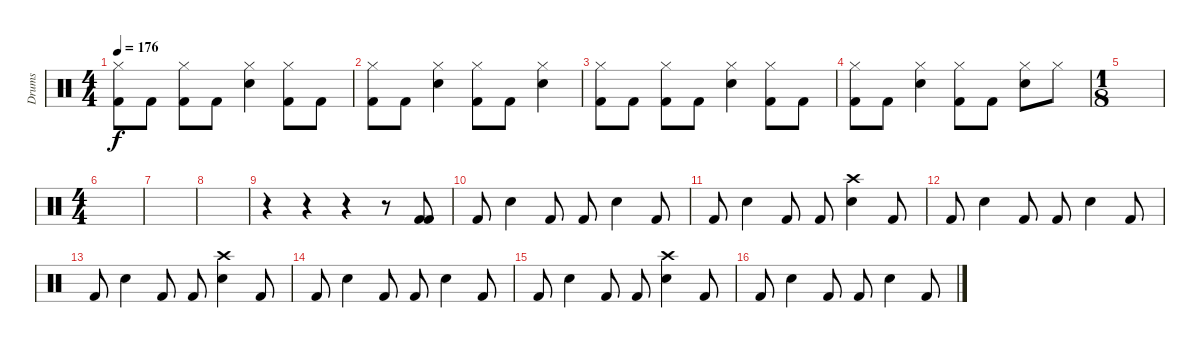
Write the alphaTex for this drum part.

\track ("Drums" "Drums") {instrument percussion}
\staff {score}
\articulation defaults
\ts (4 4)
\tempo 176
\clef neutral
\ks c
("Hi-Hat (closed)" "Kick (hit) 2").8{dy f} "Kick (hit) 2".8 ("Hi-Hat (closed)" "Kick (hit) 2").8 "Kick (hit) 2".8 ("Hi-Hat (closed)" "Snare (hit) 2").4 ("Hi-Hat (closed)" "Kick (hit) 2").8 "Kick (hit) 2".8 |
("Hi-Hat (closed)" "Kick (hit) 2").8 "Kick (hit) 2".8 ("Hi-Hat (closed)" "Snare (hit) 2").4 ("Hi-Hat (closed)" "Kick (hit) 2").8 "Kick (hit) 2".8 ("Hi-Hat (closed)" "Snare (hit) 2").4 |
("Hi-Hat (closed)" "Kick (hit) 2").8 "Kick (hit) 2".8 ("Hi-Hat (closed)" "Kick (hit) 2").8 "Kick (hit) 2".8 ("Hi-Hat (closed)" "Snare (hit) 2").4 ("Hi-Hat (closed)" "Kick (hit) 2").8 "Kick (hit) 2".8 |
("Hi-Hat (closed)" "Kick (hit) 2").8 "Kick (hit) 2".8 ("Hi-Hat (closed)" "Snare (hit) 2").4 ("Hi-Hat (closed)" "Kick (hit) 2").8 "Kick (hit) 2".8 ("Hi-Hat (closed)" "Snare (hit) 2").8 "Hi-Hat (closed)".8 |
\ts (1 8)
|
\ts (4 4)
|
|
|
r.4 r.4 r.4 r.8 ("Kick (hit) 2" "Kick (hit) 2").8 |
"Kick (hit) 2".8 "Snare (hit) 2".4 "Kick (hit) 2".8 "Kick (hit) 2".8 "Snare (hit) 2".4 "Kick (hit) 2".8 |
"Kick (hit) 2".8 "Snare (hit) 2".4 "Kick (hit) 2".8 "Kick (hit) 2".8 ("Snare (hit) 2" "Crash high (hit)").4 "Kick (hit) 2".8 |
"Kick (hit) 2".8 "Snare (hit) 2".4 "Kick (hit) 2".8 "Kick (hit) 2".8 "Snare (hit) 2".4 "Kick (hit) 2".8 |
"Kick (hit) 2".8 "Snare (hit) 2".4 "Kick (hit) 2".8 "Kick (hit) 2".8 ("Snare (hit) 2" "Crash high (hit)").4 "Kick (hit) 2".8 |
"Kick (hit) 2".8 "Snare (hit) 2".4 "Kick (hit) 2".8 "Kick (hit) 2".8 "Snare (hit) 2".4 "Kick (hit) 2".8 |
"Kick (hit) 2".8 "Snare (hit) 2".4 "Kick (hit) 2".8 "Kick (hit) 2".8 ("Snare (hit) 2" "Crash high (hit)").4 "Kick (hit) 2".8 |
"Kick (hit) 2".8 "Snare (hit) 2".4 "Kick (hit) 2".8 "Kick (hit) 2".8 "Snare (hit) 2".4 "Kick (hit) 2".8
